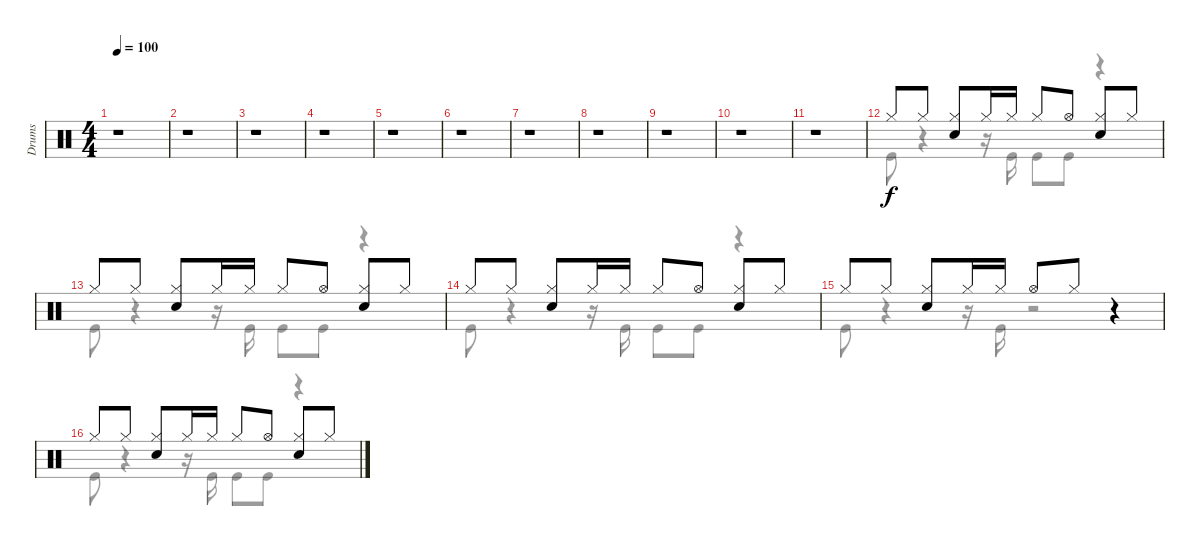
\track ("Drums" "Drums") {instrument percussion}
\staff {score}
\articulation defaults
\voice
\ts (4 4)
\tempo 100
\clef neutral
\ks c
r.1{dy f} |
r.1 |
r.1 |
r.1 |
r.1 |
r.1 |
r.1 |
r.1 |
r.1 |
r.1 |
r.1 |
"Hi-Hat (closed)".8 "Hi-Hat (closed)".8 ("Hi-Hat (closed)" "Electric Snare (hit)").8 "Hi-Hat (closed)".16 "Hi-Hat (closed)".16 "Hi-Hat (closed)".8 "Hi-Hat (open)".8 ("Hi-Hat (closed)" "Electric Snare (hit)").8 "Hi-Hat (closed)".8 |
"Hi-Hat (closed)".8 "Hi-Hat (closed)".8 ("Hi-Hat (closed)" "Electric Snare (hit)").8 "Hi-Hat (closed)".16 "Hi-Hat (closed)".16 "Hi-Hat (closed)".8 "Hi-Hat (open)".8 ("Hi-Hat (closed)" "Electric Snare (hit)").8 "Hi-Hat (closed)".8 |
"Hi-Hat (closed)".8 "Hi-Hat (closed)".8 ("Hi-Hat (closed)" "Electric Snare (hit)").8 "Hi-Hat (closed)".16 "Hi-Hat (closed)".16 "Hi-Hat (closed)".8 "Hi-Hat (open)".8 ("Hi-Hat (closed)" "Electric Snare (hit)").8 "Hi-Hat (closed)".8 |
"Hi-Hat (closed)".8 "Hi-Hat (closed)".8 ("Hi-Hat (closed)" "Electric Snare (hit)").8 "Hi-Hat (closed)".16 "Hi-Hat (closed)".16 "Hi-Hat (open)".8 "Hi-Hat (closed)".8 r.4 |
"Hi-Hat (closed)".8 "Hi-Hat (closed)".8 ("Hi-Hat (closed)" "Electric Snare (hit)").8 "Hi-Hat (closed)".16 "Hi-Hat (closed)".16 "Hi-Hat (closed)".8 "Hi-Hat (open)".8 ("Hi-Hat (closed)" "Electric Snare (hit)").8 "Hi-Hat (closed)".8
\voice
\clef neutral
\ottava regular
\simile none
\ks c
r.1{dy f} |
r.1 |
r.1 |
r.1 |
r.1 |
r.1 |
r.1 |
r.1 |
r.1 |
r.1 |
r.1 |
"Kick (hit)".8 r.4 r.16 "Kick (hit)".16 "Kick (hit)".8 "Kick (hit)".8 r.4 |
"Kick (hit)".8 r.4 r.16 "Kick (hit)".16 "Kick (hit)".8 "Kick (hit)".8 r.4 |
"Kick (hit)".8 r.4 r.16 "Kick (hit)".16 "Kick (hit)".8 "Kick (hit)".8 r.4 |
"Kick (hit)".8 r.4 r.16 "Kick (hit)".16 r.2 |
"Kick (hit)".8 r.4 r.16 "Kick (hit)".16 "Kick (hit)".8 "Kick (hit)".8 r.4
